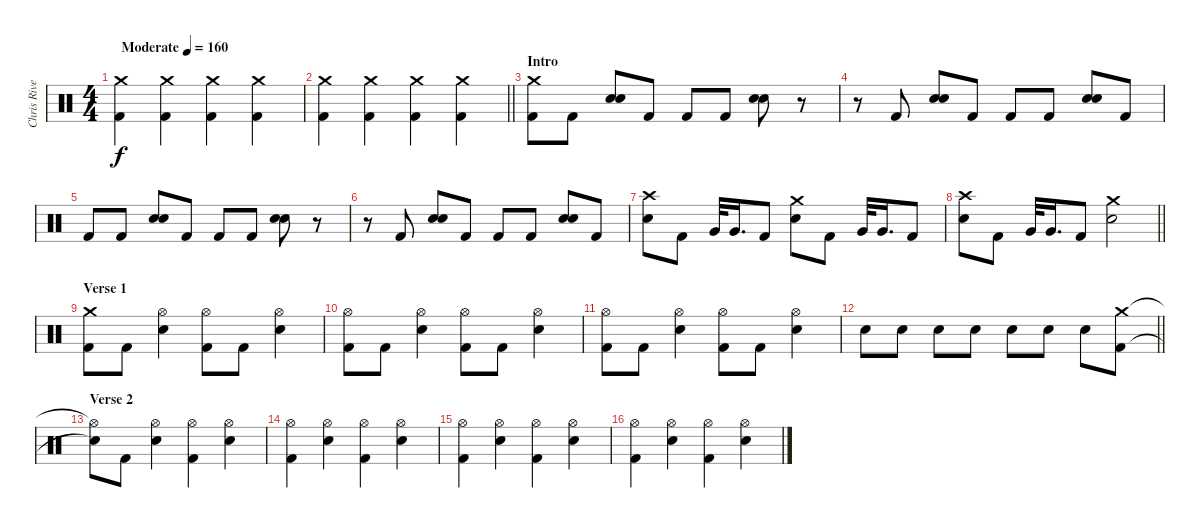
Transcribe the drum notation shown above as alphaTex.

\track ("Chris Rivers" "Chris Rive") {instrument percussion}
\staff {score}
\articulation defaults
\ts (4 4)
\tempo (160 "Moderate")
\clef neutral
\ks c
("Crash medium (hit)" "Kick (hit) 2").4{dy f} ("Crash medium (hit)" "Kick (hit) 2").4 ("Crash medium (hit)" "Kick (hit) 2").4 ("Crash medium (hit)" "Kick (hit) 2").4 |
\barLineRight lightlight
("Crash medium (hit)" "Kick (hit) 2").4 ("Crash medium (hit)" "Kick (hit) 2").4 ("Crash medium (hit)" "Kick (hit) 2").4 ("Crash medium (hit)" "Kick (hit) 2").4 |
\section ("" "Intro")
("Crash medium (hit)" "Kick (hit) 2").8 "Kick (hit) 2".8 ("Electric Snare (hit)" "Electric Snare (hit)").8 "Kick (hit) 2".8 "Kick (hit) 2".8 "Kick (hit) 2".8 ("Electric Snare (hit)" "Electric Snare (hit)").8 r.8 |
r.8 "Kick (hit) 2".8 ("Electric Snare (hit)" "Electric Snare (hit)").8 "Kick (hit) 2".8 "Kick (hit) 2".8 "Kick (hit) 2".8 ("Electric Snare (hit)" "Electric Snare (hit)").8 "Kick (hit) 2".8 |
"Kick (hit) 2".8 "Kick (hit) 2".8 ("Electric Snare (hit)" "Electric Snare (hit)").8 "Kick (hit) 2".8 "Kick (hit) 2".8 "Kick (hit) 2".8 ("Electric Snare (hit)" "Electric Snare (hit)").8 r.8 |
r.8 "Kick (hit) 2".8 ("Electric Snare (hit)" "Electric Snare (hit)").8 "Kick (hit) 2".8 "Kick (hit) 2".8 "Kick (hit) 2".8 ("Electric Snare (hit)" "Electric Snare (hit)").8 "Kick (hit) 2".8 |
("Crash high (hit)" "Electric Snare (hit)").8 "Kick (hit) 2".8 "Very Low Tom (hit)".32 "Very Low Tom (hit)".16{d} "Kick (hit) 2".8 ("Crash medium (hit)" "Electric Snare (hit)").8 "Kick (hit) 2".8 "Very Low Tom (hit)".32 "Very Low Tom (hit)".16{d} "Kick (hit) 2".8 |
\barLineRight lightlight
("Crash high (hit)" "Electric Snare (hit)").8 "Kick (hit) 2".8 "Very Low Tom (hit)".32 "Very Low Tom (hit)".16{d} "Kick (hit) 2".8 ("Crash medium (hit)" "Electric Snare (hit)").2 |
\section ("" "Verse 1")
("Crash medium (hit)" "Kick (hit) 2").8 "Kick (hit) 2".8 ("Hi-Hat (open)" "Electric Snare (hit)").4 ("Hi-Hat (open)" "Kick (hit) 2").8 "Kick (hit) 2".8 ("Hi-Hat (open)" "Electric Snare (hit)").4 |
("Hi-Hat (open)" "Kick (hit) 2").8 "Kick (hit) 2".8 ("Hi-Hat (open)" "Electric Snare (hit)").4 ("Hi-Hat (open)" "Kick (hit) 2").8 "Kick (hit) 2".8 ("Hi-Hat (open)" "Electric Snare (hit)").4 |
("Hi-Hat (open)" "Kick (hit) 2").8 "Kick (hit) 2".8 ("Hi-Hat (open)" "Electric Snare (hit)").4 ("Hi-Hat (open)" "Kick (hit) 2").8 "Kick (hit) 2".8 ("Hi-Hat (open)" "Electric Snare (hit)").4 |
\barLineRight lightlight "Electric Snare (hit)".8 "Electric Snare (hit)".8 "Electric Snare (hit)".8 "Electric Snare (hit)".8 "Electric Snare (hit)".8 "Electric Snare (hit)".8 "Electric Snare (hit)".8
("Crash medium (hit)" "Kick (hit) 2").8 |
\section ("" "Verse 2")
("Hi-Hat (open)"{t} "Snare (hit)"{t}).8 "Kick (hit) 2".8 ("Hi-Hat (open)" "Electric Snare (hit)").4 ("Hi-Hat (open)" "Kick (hit) 2").4 ("Hi-Hat (open)" "Electric Snare (hit)").4 |
("Hi-Hat (open)" "Kick (hit) 2").4 ("Hi-Hat (open)" "Electric Snare (hit)").4 ("Hi-Hat (open)" "Kick (hit) 2").4 ("Hi-Hat (open)" "Electric Snare (hit)").4 |
("Hi-Hat (open)" "Kick (hit) 2").4 ("Hi-Hat (open)" "Electric Snare (hit)").4 ("Hi-Hat (open)" "Kick (hit) 2").4 ("Hi-Hat (open)" "Electric Snare (hit)").4 |
("Hi-Hat (open)" "Kick (hit) 2").4 ("Hi-Hat (open)" "Electric Snare (hit)").4 ("Hi-Hat (open)" "Kick (hit) 2").4 ("Hi-Hat (open)" "Electric Snare (hit)").4
